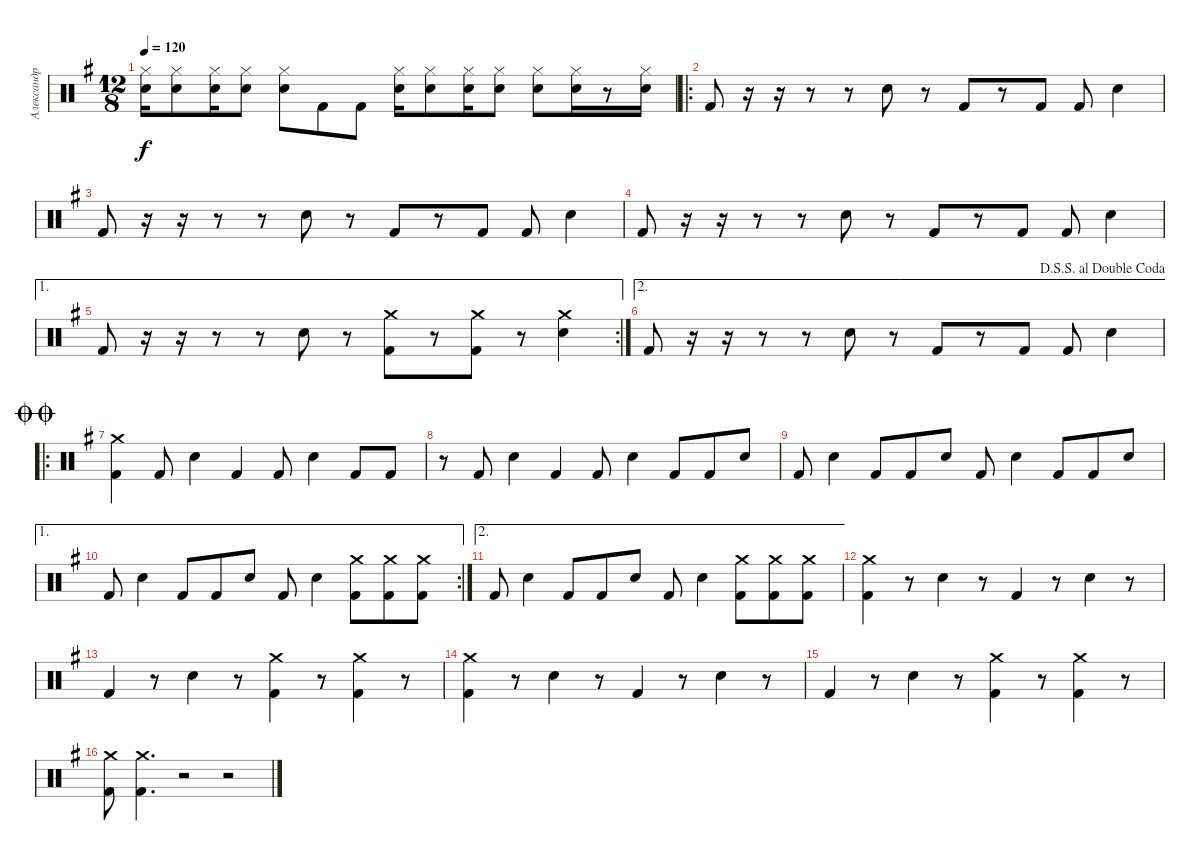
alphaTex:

\track ("Александр Манякин" "Александр ") {instrument percussion}
\staff {score}
\articulation defaults
\ts (12 8)
\tempo 120
\clef neutral
\ks g
("Snare (hit) 2" "Hi-Hat (closed)").16{dy f} ("Snare (hit) 2" "Hi-Hat (closed)").8 ("Snare (hit) 2" "Hi-Hat (closed)").16 ("Snare (hit) 2" "Hi-Hat (closed)").8 ("Snare (hit) 2" "Hi-Hat (closed)").8 "Kick (hit) 2".8 "Kick (hit) 2".8 ("Snare (hit) 2" "Hi-Hat (closed)").16 ("Snare (hit) 2" "Hi-Hat (closed)").8 ("Snare (hit) 2" "Hi-Hat (closed)").16 ("Snare (hit) 2" "Hi-Hat (closed)").8 ("Snare (hit) 2" "Hi-Hat (closed)").8 ("Snare (hit) 2" "Hi-Hat (closed)").16 r.8 ("Snare (hit) 2" "Hi-Hat (closed)").16 |
\ro "Kick (hit) 2".8
r.16 r.16 r.8 r.8 "Snare (hit) 2".8 r.8 "Kick (hit) 2".8 r.8 "Kick (hit) 2".8 "Kick (hit) 2".8 "Snare (hit) 2".4 |
"Kick (hit) 2".8 r.16 r.16 r.8 r.8 "Snare (hit) 2".8 r.8 "Kick (hit) 2".8 r.8 "Kick (hit) 2".8 "Kick (hit) 2".8 "Snare (hit) 2".4 |
"Kick (hit) 2".8 r.16 r.16 r.8 r.8 "Snare (hit) 2".8 r.8 "Kick (hit) 2".8 r.8 "Kick (hit) 2".8 "Kick (hit) 2".8 "Snare (hit) 2".4 |
\ae 1
\rc 2 "Kick (hit) 2".8
r.16 r.16 r.8 r.8 "Snare (hit) 2".8 r.8 ("Kick (hit) 2" "Crash medium (hit)").8 r.8 ("Kick (hit) 2" "Crash medium (hit)").8 r.8 ("Snare (hit) 2" "Crash medium (hit)").4 |
\ae 2
\jump dalsegnosegnoaldoublecoda "Kick (hit) 2".8
r.16 r.16 r.8 r.8 "Snare (hit) 2".8 r.8 "Kick (hit) 2".8 r.8 "Kick (hit) 2".8 "Kick (hit) 2".8 "Snare (hit) 2".4 |
\ro
\jump doublecoda
("Kick (hit) 2" "Crash medium (hit)").4 "Kick (hit) 2".8 "Snare (hit) 2".4 "Kick (hit) 2".4 "Kick (hit) 2".8 "Snare (hit) 2".4 "Kick (hit) 2".8 "Kick (hit) 2".8 |
r.8 "Kick (hit) 2".8 "Snare (hit) 2".4 "Kick (hit) 2".4 "Kick (hit) 2".8 "Snare (hit) 2".4 "Kick (hit) 2".8 "Kick (hit) 2".8 "Snare (hit) 2".8 |
"Kick (hit) 2".8 "Snare (hit) 2".4 "Kick (hit) 2".8 "Kick (hit) 2".8 "Snare (hit) 2".8 "Kick (hit) 2".8 "Snare (hit) 2".4 "Kick (hit) 2".8 "Kick (hit) 2".8 "Snare (hit) 2".8 |
\ae 1
\rc 2 "Kick (hit) 2".8 "Snare (hit) 2".4 "Kick (hit) 2".8 "Kick (hit) 2".8 "Snare (hit) 2".8 "Kick (hit) 2".8 "Snare (hit) 2".4
("Kick (hit) 2" "Crash medium (hit)").8 ("Kick (hit) 2" "Crash medium (hit)").8 ("Kick (hit) 2" "Crash medium (hit)").8 |
\ae 2 "Kick (hit) 2".8 "Snare (hit) 2".4 "Kick (hit) 2".8 "Kick (hit) 2".8 "Snare (hit) 2".8 "Kick (hit) 2".8 "Snare (hit) 2".4
("Kick (hit) 2" "Crash medium (hit)").8 ("Kick (hit) 2" "Crash medium (hit)").8 ("Kick (hit) 2" "Crash medium (hit)").8 |
("Kick (hit) 2" "Crash medium (hit)").4 r.8 "Snare (hit) 2".4 r.8 "Kick (hit) 2".4 r.8 "Snare (hit) 2".4 r.8 |
"Kick (hit) 2".4 r.8 "Snare (hit) 2".4 r.8 ("Kick (hit) 2" "Crash medium (hit)").4 r.8 ("Kick (hit) 2" "Crash medium (hit)").4 r.8 |
("Kick (hit) 2" "Crash medium (hit)").4 r.8 "Snare (hit) 2".4 r.8 "Kick (hit) 2".4 r.8 "Snare (hit) 2".4 r.8 |
"Kick (hit) 2".4 r.8 "Snare (hit) 2".4 r.8 ("Kick (hit) 2" "Crash medium (hit)").4 r.8 ("Kick (hit) 2" "Crash medium (hit)").4 r.8 |
("Kick (hit) 2" "Crash medium (hit)").8 ("Kick (hit) 2" "Crash medium (hit)").4{d} r.2 r.2
